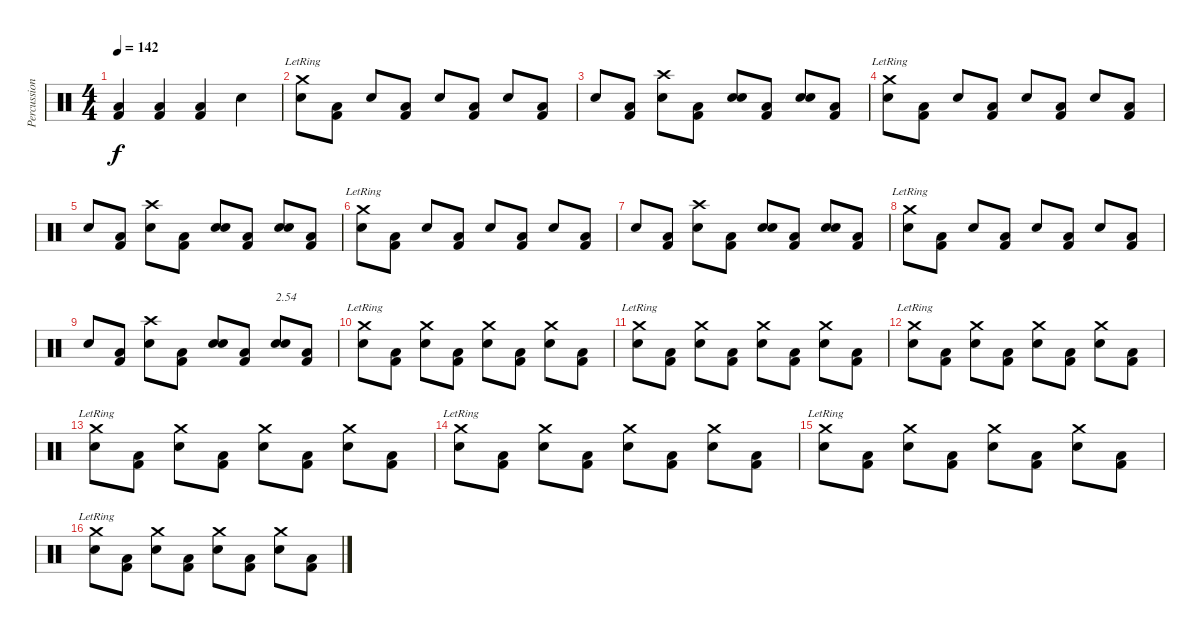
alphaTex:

\track ("Percussions" "Percussion") {instrument percussion}
\staff {score}
\articulation defaults
\ts (4 4)
\tempo 142
\clef neutral
\ks c
("Kick (hit) 2" "Low Floor Tom (hit)").4{dy f} ("Kick (hit) 2" "Low Floor Tom (hit)").4 ("Kick (hit) 2" "Low Floor Tom (hit)").4 "Electric Snare (hit)".4 |
("Electric Snare (hit)" "Crash medium (hit)"{lr}).8 ("Kick (hit) 2" "Low Floor Tom (hit)").8 "Electric Snare (hit)".8 ("Kick (hit) 2" "Low Floor Tom (hit)").8 "Electric Snare (hit)".8 ("Kick (hit) 2" "Low Floor Tom (hit)").8 "Electric Snare (hit)".8 ("Kick (hit) 2" "Low Floor Tom (hit)").8 |
"Electric Snare (hit)".8 ("Kick (hit) 2" "Low Floor Tom (hit)").8 ("Electric Snare (hit)" "Crash high (hit)").8 ("Kick (hit) 2" "Low Floor Tom (hit)").8 ("Electric Snare (hit)" "Snare (hit) 2").8 ("Kick (hit) 2" "Low Floor Tom (hit)").8 ("Electric Snare (hit)" "Snare (hit) 2").8 ("Kick (hit) 2" "Low Floor Tom (hit)").8 |
("Electric Snare (hit)" "Crash medium (hit)"{lr}).8 ("Kick (hit) 2" "Low Floor Tom (hit)").8 "Electric Snare (hit)".8 ("Kick (hit) 2" "Low Floor Tom (hit)").8 "Electric Snare (hit)".8 ("Kick (hit) 2" "Low Floor Tom (hit)").8 "Electric Snare (hit)".8 ("Kick (hit) 2" "Low Floor Tom (hit)").8 |
"Electric Snare (hit)".8 ("Kick (hit) 2" "Low Floor Tom (hit)").8 ("Electric Snare (hit)" "Crash high (hit)").8 ("Kick (hit) 2" "Low Floor Tom (hit)").8 ("Electric Snare (hit)" "Snare (hit) 2").8 ("Kick (hit) 2" "Low Floor Tom (hit)").8 ("Electric Snare (hit)" "Snare (hit) 2").8 ("Kick (hit) 2" "Low Floor Tom (hit)").8 |
("Electric Snare (hit)" "Crash medium (hit)"{lr}).8 ("Kick (hit) 2" "Low Floor Tom (hit)").8 "Electric Snare (hit)".8 ("Kick (hit) 2" "Low Floor Tom (hit)").8 "Electric Snare (hit)".8 ("Kick (hit) 2" "Low Floor Tom (hit)").8 "Electric Snare (hit)".8 ("Kick (hit) 2" "Low Floor Tom (hit)").8 |
"Electric Snare (hit)".8 ("Kick (hit) 2" "Low Floor Tom (hit)").8 ("Electric Snare (hit)" "Crash high (hit)").8 ("Kick (hit) 2" "Low Floor Tom (hit)").8 ("Electric Snare (hit)" "Snare (hit) 2").8 ("Kick (hit) 2" "Low Floor Tom (hit)").8 ("Electric Snare (hit)" "Snare (hit) 2").8 ("Kick (hit) 2" "Low Floor Tom (hit)").8 |
("Electric Snare (hit)" "Crash medium (hit)"{lr}).8 ("Kick (hit) 2" "Low Floor Tom (hit)").8 "Electric Snare (hit)".8 ("Kick (hit) 2" "Low Floor Tom (hit)").8 "Electric Snare (hit)".8 ("Kick (hit) 2" "Low Floor Tom (hit)").8 "Electric Snare (hit)".8 ("Kick (hit) 2" "Low Floor Tom (hit)").8 |
"Electric Snare (hit)".8 ("Kick (hit) 2" "Low Floor Tom (hit)").8 ("Electric Snare (hit)" "Crash high (hit)").8 ("Kick (hit) 2" "Low Floor Tom (hit)").8 ("Electric Snare (hit)" "Snare (hit) 2").8 ("Kick (hit) 2" "Low Floor Tom (hit)").8 ("Electric Snare (hit)" "Snare (hit) 2").8{txt "2.54"} ("Kick (hit) 2" "Low Floor Tom (hit)").8 |
("Electric Snare (hit)" "Crash medium (hit)"{lr}).8 ("Kick (hit) 2" "Low Floor Tom (hit)").8 ("Electric Snare (hit)" "Crash medium (hit)").8 ("Kick (hit) 2" "Low Floor Tom (hit)").8 ("Electric Snare (hit)" "Crash medium (hit)").8 ("Kick (hit) 2" "Low Floor Tom (hit)").8 ("Electric Snare (hit)" "Crash medium (hit)").8 ("Kick (hit) 2" "Low Floor Tom (hit)").8 |
("Electric Snare (hit)" "Crash medium (hit)"{lr}).8 ("Kick (hit) 2" "Low Floor Tom (hit)").8 ("Electric Snare (hit)" "Crash medium (hit)").8 ("Kick (hit) 2" "Low Floor Tom (hit)").8 ("Electric Snare (hit)" "Crash medium (hit)").8 ("Kick (hit) 2" "Low Floor Tom (hit)").8 ("Electric Snare (hit)" "Crash medium (hit)").8 ("Kick (hit) 2" "Low Floor Tom (hit)").8 |
("Electric Snare (hit)" "Crash medium (hit)"{lr}).8 ("Kick (hit) 2" "Low Floor Tom (hit)").8 ("Electric Snare (hit)" "Crash medium (hit)").8 ("Kick (hit) 2" "Low Floor Tom (hit)").8 ("Electric Snare (hit)" "Crash medium (hit)").8 ("Kick (hit) 2" "Low Floor Tom (hit)").8 ("Electric Snare (hit)" "Crash medium (hit)").8 ("Kick (hit) 2" "Low Floor Tom (hit)").8 |
("Electric Snare (hit)" "Crash medium (hit)"{lr}).8 ("Kick (hit) 2" "Low Floor Tom (hit)").8 ("Electric Snare (hit)" "Crash medium (hit)").8 ("Kick (hit) 2" "Low Floor Tom (hit)").8 ("Electric Snare (hit)" "Crash medium (hit)").8 ("Kick (hit) 2" "Low Floor Tom (hit)").8 ("Electric Snare (hit)" "Crash medium (hit)").8 ("Kick (hit) 2" "Low Floor Tom (hit)").8 |
("Electric Snare (hit)" "Crash medium (hit)"{lr}).8 ("Kick (hit) 2" "Low Floor Tom (hit)").8 ("Electric Snare (hit)" "Crash medium (hit)").8 ("Kick (hit) 2" "Low Floor Tom (hit)").8 ("Electric Snare (hit)" "Crash medium (hit)").8 ("Kick (hit) 2" "Low Floor Tom (hit)").8 ("Electric Snare (hit)" "Crash medium (hit)").8 ("Kick (hit) 2" "Low Floor Tom (hit)").8 |
("Electric Snare (hit)" "Crash medium (hit)"{lr}).8 ("Kick (hit) 2" "Low Floor Tom (hit)").8 ("Electric Snare (hit)" "Crash medium (hit)").8 ("Kick (hit) 2" "Low Floor Tom (hit)").8 ("Electric Snare (hit)" "Crash medium (hit)").8 ("Kick (hit) 2" "Low Floor Tom (hit)").8 ("Electric Snare (hit)" "Crash medium (hit)").8 ("Kick (hit) 2" "Low Floor Tom (hit)").8 |
("Electric Snare (hit)" "Crash medium (hit)"{lr}).8 ("Kick (hit) 2" "Low Floor Tom (hit)").8 ("Electric Snare (hit)" "Crash medium (hit)").8 ("Kick (hit) 2" "Low Floor Tom (hit)").8 ("Electric Snare (hit)" "Crash medium (hit)").8 ("Kick (hit) 2" "Low Floor Tom (hit)").8 ("Electric Snare (hit)" "Crash medium (hit)").8 ("Kick (hit) 2" "Low Floor Tom (hit)").8
